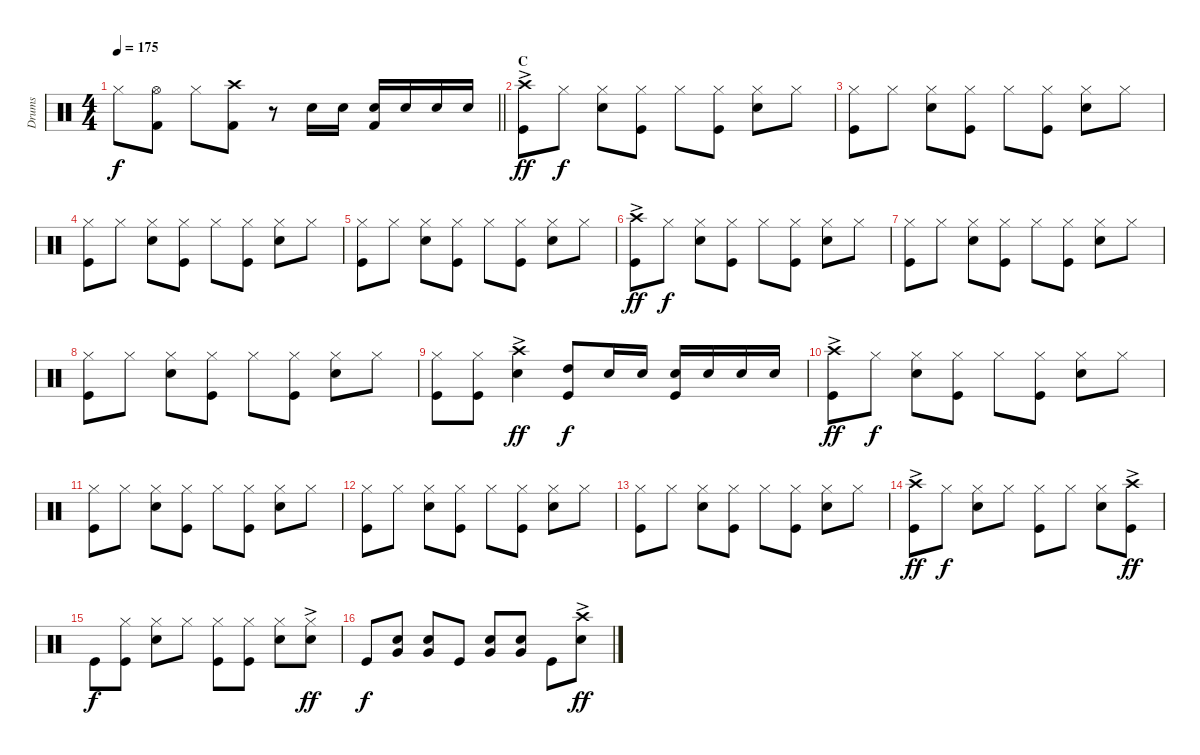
\track ("Drums" "Drums") {instrument percussion}
\staff {score}
\articulation defaults
\ts (4 4)
\tempo 175
\clef neutral
\barLineRight lightlight
\ks c "Hi-Hat (closed)".8{dy f}
("Hi-Hat (open)" "Kick (hit) 2").8 "Hi-Hat (closed)".8 ("Crash high (hit)" "Kick (hit) 2").8 r.8 "Snare (hit) 2".16 "Snare (hit) 2".16 ("Snare (hit) 2" "Kick (hit) 2").16 "Snare (hit) 2".16 "Snare (hit) 2".16 "Snare (hit) 2".16 |
\section ("" "C")
("Crash high (hit)"{ac} "Kick (hit)").8{dy ff} "Hi-Hat (closed)".8{dy f} ("Hi-Hat (closed)" "Snare (hit) 2").8 ("Hi-Hat (closed)" "Kick (hit)").8 "Hi-Hat (closed)".8 ("Hi-Hat (closed)" "Kick (hit)").8 ("Hi-Hat (closed)" "Snare (hit) 2").8 "Hi-Hat (closed)".8 |
("Hi-Hat (closed)" "Kick (hit)").8 "Hi-Hat (closed)".8 ("Hi-Hat (closed)" "Snare (hit) 2").8 ("Hi-Hat (closed)" "Kick (hit)").8 "Hi-Hat (closed)".8 ("Hi-Hat (closed)" "Kick (hit)").8 ("Hi-Hat (closed)" "Snare (hit) 2").8 "Hi-Hat (closed)".8 |
("Hi-Hat (closed)" "Kick (hit)").8 "Hi-Hat (closed)".8 ("Hi-Hat (closed)" "Snare (hit) 2").8 ("Hi-Hat (closed)" "Kick (hit)").8 "Hi-Hat (closed)".8 ("Hi-Hat (closed)" "Kick (hit)").8 ("Hi-Hat (closed)" "Snare (hit) 2").8 "Hi-Hat (closed)".8 |
("Hi-Hat (closed)" "Kick (hit)").8 "Hi-Hat (closed)".8 ("Hi-Hat (closed)" "Snare (hit) 2").8 ("Hi-Hat (closed)" "Kick (hit)").8 "Hi-Hat (closed)".8 ("Hi-Hat (closed)" "Kick (hit)").8 ("Hi-Hat (closed)" "Snare (hit) 2").8 "Hi-Hat (closed)".8 |
("Crash high (hit)"{ac} "Kick (hit)").8{dy ff} "Hi-Hat (closed)".8{dy f} ("Hi-Hat (closed)" "Snare (hit) 2").8 ("Hi-Hat (closed)" "Kick (hit)").8 "Hi-Hat (closed)".8 ("Hi-Hat (closed)" "Kick (hit)").8 ("Hi-Hat (closed)" "Snare (hit) 2").8 "Hi-Hat (closed)".8 |
("Hi-Hat (closed)" "Kick (hit)").8 "Hi-Hat (closed)".8 ("Hi-Hat (closed)" "Snare (hit) 2").8 ("Hi-Hat (closed)" "Kick (hit)").8 "Hi-Hat (closed)".8 ("Hi-Hat (closed)" "Kick (hit)").8 ("Hi-Hat (closed)" "Snare (hit) 2").8 "Hi-Hat (closed)".8 |
("Hi-Hat (closed)" "Kick (hit)").8 "Hi-Hat (closed)".8 ("Hi-Hat (closed)" "Snare (hit) 2").8 ("Hi-Hat (closed)" "Kick (hit)").8 "Hi-Hat (closed)".8 ("Hi-Hat (closed)" "Kick (hit)").8 ("Hi-Hat (closed)" "Snare (hit) 2").8 "Hi-Hat (closed)".8 |
("Hi-Hat (closed)" "Kick (hit)").8 ("Hi-Hat (closed)" "Kick (hit)").8 ("Crash high (hit)"{ac} "Snare (hit) 2").4{dy ff} ("High Tom (hit)" "Kick (hit)").8{dy f} "Snare (hit) 2".16 "Snare (hit) 2".16 ("Snare (hit) 2" "Kick (hit)").16 "Snare (hit) 2".16 "Snare (hit) 2".16 "Snare (hit) 2".16 |
("Crash high (hit)"{ac} "Kick (hit)").8{dy ff} "Hi-Hat (closed)".8{dy f} ("Hi-Hat (closed)" "Snare (hit) 2").8 ("Hi-Hat (closed)" "Kick (hit)").8 "Hi-Hat (closed)".8 ("Hi-Hat (closed)" "Kick (hit)").8 ("Hi-Hat (closed)" "Snare (hit) 2").8 "Hi-Hat (closed)".8 |
("Hi-Hat (closed)" "Kick (hit)").8 "Hi-Hat (closed)".8 ("Hi-Hat (closed)" "Snare (hit) 2").8 ("Hi-Hat (closed)" "Kick (hit)").8 "Hi-Hat (closed)".8 ("Hi-Hat (closed)" "Kick (hit)").8 ("Hi-Hat (closed)" "Snare (hit) 2").8 "Hi-Hat (closed)".8 |
("Hi-Hat (closed)" "Kick (hit)").8 "Hi-Hat (closed)".8 ("Hi-Hat (closed)" "Snare (hit) 2").8 ("Hi-Hat (closed)" "Kick (hit)").8 "Hi-Hat (closed)".8 ("Hi-Hat (closed)" "Kick (hit)").8 ("Hi-Hat (closed)" "Snare (hit) 2").8 "Hi-Hat (closed)".8 |
("Hi-Hat (closed)" "Kick (hit)").8 "Hi-Hat (closed)".8 ("Hi-Hat (closed)" "Snare (hit) 2").8 ("Hi-Hat (closed)" "Kick (hit)").8 "Hi-Hat (closed)".8 ("Hi-Hat (closed)" "Kick (hit)").8 ("Hi-Hat (closed)" "Snare (hit) 2").8 "Hi-Hat (closed)".8 |
("Crash high (hit)"{ac} "Kick (hit)").8{dy ff} "Hi-Hat (closed)".8{dy f} ("Hi-Hat (closed)" "Snare (hit) 2").8 "Hi-Hat (closed)".8 ("Hi-Hat (closed)" "Kick (hit)").8 "Hi-Hat (closed)".8 ("Hi-Hat (closed)" "Snare (hit) 2").8 ("Crash high (hit)"{ac} "Kick (hit)").8{dy ff} |
"Kick (hit)".8{dy f} ("Kick (hit)" "Hi-Hat (closed)").8 ("Hi-Hat (closed)" "Snare (hit) 2").8 "Hi-Hat (closed)".8 ("Hi-Hat (closed)" "Kick (hit)").8 ("Kick (hit)" "Hi-Hat (closed)").8 ("Hi-Hat (closed)" "Snare (hit) 2").8 ("Snare (hit) 2" "Hi-Hat (closed)"{ac}).8{dy ff} |
"Kick (hit)".8{dy f} ("Snare (hit) 2" "Very Low Tom (hit)").8 ("Very Low Tom (hit)" "Snare (hit) 2").8 "Kick (hit)".8 ("Snare (hit) 2" "Very Low Tom (hit)").8 ("Snare (hit) 2" "Very Low Tom (hit)").8 "Kick (hit)".8 ("Crash high (hit)"{ac} "Snare (hit) 2").8{dy ff}
